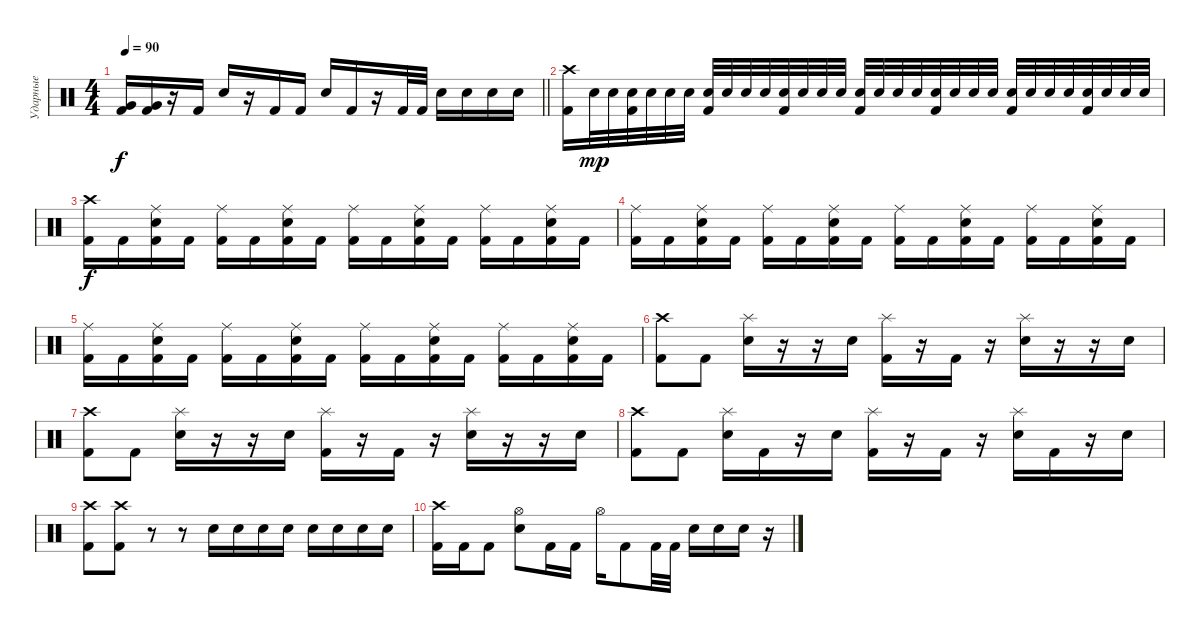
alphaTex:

\track ("Ударные" "Ударные") {instrument percussion}
\staff {score}
\articulation defaults
\ts (4 4)
\tempo 90
\clef neutral
\barLineRight lightlight
\ks c
("Very Low Tom (hit)" "Kick (hit) 2").16{dy f} ("Very Low Tom (hit)" "Kick (hit) 2").16 r.16 "Kick (hit) 2".16 "Snare (hit) 2".16 r.16 "Kick (hit) 2".16 "Kick (hit) 2".16 "Snare (hit) 2".16 "Kick (hit) 2".16 r.16 "Kick (hit) 2".32 "Kick (hit) 2".32 "Snare (hit) 2".16 "Snare (hit) 2".16 "Snare (hit) 2".16 "Snare (hit) 2".16 |
("Crash high (hit)" "Kick (hit) 2").16 "Snare (hit) 2".32{dy mp} "Snare (hit) 2".32 ("Snare (hit) 2" "Kick (hit) 2").32 "Snare (hit) 2".32 "Snare (hit) 2".32 "Snare (hit) 2".32 ("Snare (hit) 2" "Kick (hit) 2").32 "Snare (hit) 2".32 "Snare (hit) 2".32 "Snare (hit) 2".32 ("Snare (hit) 2" "Kick (hit) 2").32 "Snare (hit) 2".32 "Snare (hit) 2".32 "Snare (hit) 2".32 ("Snare (hit) 2" "Kick (hit) 2").32 "Snare (hit) 2".32 "Snare (hit) 2".32 "Snare (hit) 2".32 ("Snare (hit) 2" "Kick (hit) 2").32 "Snare (hit) 2".32 "Snare (hit) 2".32 "Snare (hit) 2".32 ("Snare (hit) 2" "Kick (hit) 2").32 "Snare (hit) 2".32 "Snare (hit) 2".32 "Snare (hit) 2".32 ("Snare (hit) 2" "Kick (hit) 2").32 "Snare (hit) 2".32 "Snare (hit) 2".32 "Snare (hit) 2".32 |
("Crash high (hit)" "Kick (hit) 2").16{dy f} "Kick (hit) 2".16 ("Ride (middle)" "Snare (hit) 2" "Kick (hit) 2").16 "Kick (hit) 2".16 ("Ride (middle)" "Kick (hit) 2").16 "Kick (hit) 2".16 ("Ride (middle)" "Snare (hit) 2" "Kick (hit) 2").16 "Kick (hit) 2".16 ("Ride (middle)" "Kick (hit) 2").16 "Kick (hit) 2".16 ("Ride (middle)" "Snare (hit) 2" "Kick (hit) 2").16 "Kick (hit) 2".16 ("Ride (middle)" "Kick (hit) 2").16 "Kick (hit) 2".16 ("Ride (middle)" "Snare (hit) 2" "Kick (hit) 2").16 "Kick (hit) 2".16 |
("Ride (middle)" "Kick (hit) 2").16 "Kick (hit) 2".16 ("Ride (middle)" "Snare (hit) 2" "Kick (hit) 2").16 "Kick (hit) 2".16 ("Ride (middle)" "Kick (hit) 2").16 "Kick (hit) 2".16 ("Ride (middle)" "Snare (hit) 2" "Kick (hit) 2").16 "Kick (hit) 2".16 ("Ride (middle)" "Kick (hit) 2").16 "Kick (hit) 2".16 ("Ride (middle)" "Snare (hit) 2" "Kick (hit) 2").16 "Kick (hit) 2".16 ("Ride (middle)" "Kick (hit) 2").16 "Kick (hit) 2".16 ("Ride (middle)" "Snare (hit) 2" "Kick (hit) 2").16 "Kick (hit) 2".16 |
("Ride (middle)" "Kick (hit) 2").16 "Kick (hit) 2".16 ("Ride (middle)" "Snare (hit) 2" "Kick (hit) 2").16 "Kick (hit) 2".16 ("Ride (middle)" "Kick (hit) 2").16 "Kick (hit) 2".16 ("Ride (middle)" "Snare (hit) 2" "Kick (hit) 2").16 "Kick (hit) 2".16 ("Ride (middle)" "Kick (hit) 2").16 "Kick (hit) 2".16 ("Ride (middle)" "Snare (hit) 2" "Kick (hit) 2").16 "Kick (hit) 2".16 ("Ride (middle)" "Kick (hit) 2").16 "Kick (hit) 2".16 ("Ride (middle)" "Snare (hit) 2" "Kick (hit) 2").16 "Kick (hit) 2".16 |
("Crash high (hit)" "Kick (hit) 2").8 "Kick (hit) 2".8 ("Splash (hit)" "Snare (hit) 2").16 r.16 r.16 "Snare (hit) 2".16 ("Splash (hit)" "Kick (hit) 2").16 r.16 "Kick (hit) 2".16 r.16 ("Splash (hit)" "Snare (hit) 2").16 r.16 r.16 "Snare (hit) 2".16 |
("Crash high (hit)" "Kick (hit) 2").8 "Kick (hit) 2".8 ("Splash (hit)" "Snare (hit) 2").16 r.16 r.16 "Snare (hit) 2".16 ("Splash (hit)" "Kick (hit) 2").16 r.16 "Kick (hit) 2".16 r.16 ("Splash (hit)" "Snare (hit) 2").16 r.16 r.16 "Snare (hit) 2".16 |
("Crash high (hit)" "Kick (hit) 2").8 "Kick (hit) 2".8 ("Splash (hit)" "Snare (hit) 2").16 "Kick (hit) 2".16 r.16 "Snare (hit) 2".16 ("Splash (hit)" "Kick (hit) 2").16 r.16 "Kick (hit) 2".16 r.16 ("Splash (hit)" "Snare (hit) 2").16 "Kick (hit) 2".16 r.16 "Snare (hit) 2".16 |
("Crash high (hit)" "Kick (hit) 2").8 ("Crash high (hit)" "Kick (hit) 2").8 r.8 r.8 "Snare (hit) 2".16 "Snare (hit) 2".16 "Snare (hit) 2".16 "Snare (hit) 2".16 "Snare (hit) 2".16 "Snare (hit) 2".16 "Snare (hit) 2".16 "Snare (hit) 2".16 |
("Crash high (hit)" "Kick (hit) 2").16 "Kick (hit) 2".16 "Kick (hit) 2".8 ("Hi-Hat (open)" "Snare (hit) 2").8 "Kick (hit) 2".16 "Kick (hit) 2".16 "Hi-Hat (open)".16 "Kick (hit) 2".8 "Kick (hit) 2".32 "Kick (hit) 2".32 "Snare (hit) 2".16 "Snare (hit) 2".16 "Snare (hit) 2".16 r.16
